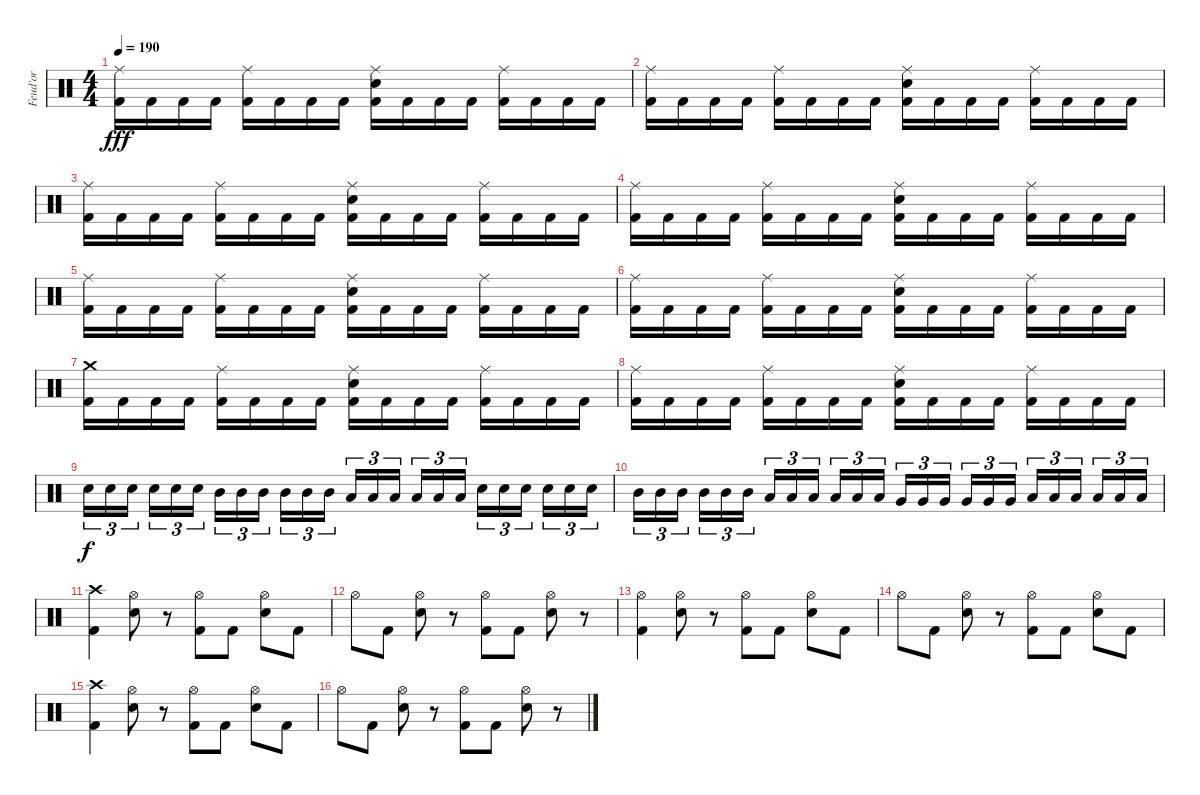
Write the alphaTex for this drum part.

\track ("Feud'or" "Feud'or") {instrument percussion}
\staff {score}
\articulation defaults
\ts (4 4)
\tempo 190
\clef neutral
\ks c
("Ride (middle)" "Kick (hit) 2").16{dy fff} "Kick (hit) 2".16 "Kick (hit) 2".16 "Kick (hit) 2".16 ("Ride (middle)" "Kick (hit) 2").16 "Kick (hit) 2".16 "Kick (hit) 2".16 "Kick (hit) 2".16 ("Ride (middle)" "Snare (hit) 2" "Kick (hit) 2").16 "Kick (hit) 2".16 "Kick (hit) 2".16 "Kick (hit) 2".16 ("Ride (middle)" "Kick (hit) 2").16 "Kick (hit) 2".16 "Kick (hit) 2".16 "Kick (hit) 2".16 |
("Ride (middle)" "Kick (hit) 2").16 "Kick (hit) 2".16 "Kick (hit) 2".16 "Kick (hit) 2".16 ("Ride (middle)" "Kick (hit) 2").16 "Kick (hit) 2".16 "Kick (hit) 2".16 "Kick (hit) 2".16 ("Ride (middle)" "Snare (hit) 2" "Kick (hit) 2").16 "Kick (hit) 2".16 "Kick (hit) 2".16 "Kick (hit) 2".16 ("Ride (middle)" "Kick (hit) 2").16 "Kick (hit) 2".16 "Kick (hit) 2".16 "Kick (hit) 2".16 |
("Ride (middle)" "Kick (hit) 2").16 "Kick (hit) 2".16 "Kick (hit) 2".16 "Kick (hit) 2".16 ("Ride (middle)" "Kick (hit) 2").16 "Kick (hit) 2".16 "Kick (hit) 2".16 "Kick (hit) 2".16 ("Ride (middle)" "Snare (hit) 2" "Kick (hit) 2").16 "Kick (hit) 2".16 "Kick (hit) 2".16 "Kick (hit) 2".16 ("Ride (middle)" "Kick (hit) 2").16 "Kick (hit) 2".16 "Kick (hit) 2".16 "Kick (hit) 2".16 |
("Ride (middle)" "Kick (hit) 2").16 "Kick (hit) 2".16 "Kick (hit) 2".16 "Kick (hit) 2".16 ("Ride (middle)" "Kick (hit) 2").16 "Kick (hit) 2".16 "Kick (hit) 2".16 "Kick (hit) 2".16 ("Ride (middle)" "Snare (hit) 2" "Kick (hit) 2").16 "Kick (hit) 2".16 "Kick (hit) 2".16 "Kick (hit) 2".16 ("Ride (middle)" "Kick (hit) 2").16 "Kick (hit) 2".16 "Kick (hit) 2".16 "Kick (hit) 2".16 |
("Ride (middle)" "Kick (hit) 2").16 "Kick (hit) 2".16 "Kick (hit) 2".16 "Kick (hit) 2".16 ("Ride (middle)" "Kick (hit) 2").16 "Kick (hit) 2".16 "Kick (hit) 2".16 "Kick (hit) 2".16 ("Ride (middle)" "Snare (hit) 2" "Kick (hit) 2").16 "Kick (hit) 2".16 "Kick (hit) 2".16 "Kick (hit) 2".16 ("Ride (middle)" "Kick (hit) 2").16 "Kick (hit) 2".16 "Kick (hit) 2".16 "Kick (hit) 2".16 |
("Ride (middle)" "Kick (hit) 2").16 "Kick (hit) 2".16 "Kick (hit) 2".16 "Kick (hit) 2".16 ("Ride (middle)" "Kick (hit) 2").16 "Kick (hit) 2".16 "Kick (hit) 2".16 "Kick (hit) 2".16 ("Ride (middle)" "Snare (hit) 2" "Kick (hit) 2").16 "Kick (hit) 2".16 "Kick (hit) 2".16 "Kick (hit) 2".16 ("Ride (middle)" "Kick (hit) 2").16 "Kick (hit) 2".16 "Kick (hit) 2".16 "Kick (hit) 2".16 |
("Crash medium (hit)" "Kick (hit) 2").16 "Kick (hit) 2".16 "Kick (hit) 2".16 "Kick (hit) 2".16 ("Ride (middle)" "Kick (hit) 2").16 "Kick (hit) 2".16 "Kick (hit) 2".16 "Kick (hit) 2".16 ("Ride (middle)" "Snare (hit) 2" "Kick (hit) 2").16 "Kick (hit) 2".16 "Kick (hit) 2".16 "Kick (hit) 2".16 ("Ride (middle)" "Kick (hit) 2").16 "Kick (hit) 2".16 "Kick (hit) 2".16 "Kick (hit) 2".16 |
("Ride (middle)" "Kick (hit) 2").16 "Kick (hit) 2".16 "Kick (hit) 2".16 "Kick (hit) 2".16 ("Ride (middle)" "Kick (hit) 2").16 "Kick (hit) 2".16 "Kick (hit) 2".16 "Kick (hit) 2".16 ("Ride (middle)" "Snare (hit) 2" "Kick (hit) 2").16 "Kick (hit) 2".16 "Kick (hit) 2".16 "Kick (hit) 2".16 ("Ride (middle)" "Kick (hit) 2").16 "Kick (hit) 2".16 "Kick (hit) 2".16 "Kick (hit) 2".16 |
"Snare (hit) 2".16{tu (3 2) dy f} "Snare (hit) 2".16{tu (3 2)} "Snare (hit) 2".16{tu (3 2) beam splitsecondary} "Snare (hit) 2".16{tu (3 2)} "Snare (hit) 2".16{tu (3 2)} "Snare (hit) 2".16{tu (3 2)} "Mid Tom (hit)".16{tu (3 2)} "Mid Tom (hit)".16{tu (3 2)} "Mid Tom (hit)".16{tu (3 2) beam splitsecondary} "Mid Tom (hit)".16{tu (3 2)} "Mid Tom (hit)".16{tu (3 2)} "Mid Tom (hit)".16{tu (3 2)} "Low Tom (hit)".16{tu (3 2)} "Low Tom (hit)".16{tu (3 2)} "Low Tom (hit)".16{tu (3 2) beam splitsecondary} "Low Tom (hit)".16{tu (3 2)} "Low Tom (hit)".16{tu (3 2)} "Low Tom (hit)".16{tu (3 2)} "Snare (hit) 2".16{tu (3 2)} "Snare (hit) 2".16{tu (3 2)} "Snare (hit) 2".16{tu (3 2) beam splitsecondary} "Snare (hit) 2".16{tu (3 2)} "Snare (hit) 2".16{tu (3 2)} "Snare (hit) 2".16{tu (3 2)} |
"Mid Tom (hit)".16{tu (3 2)} "Mid Tom (hit)".16{tu (3 2)} "Mid Tom (hit)".16{tu (3 2) beam splitsecondary} "Mid Tom (hit)".16{tu (3 2)} "Mid Tom (hit)".16{tu (3 2)} "Mid Tom (hit)".16{tu (3 2)} "Low Tom (hit)".16{tu (3 2)} "Low Tom (hit)".16{tu (3 2)} "Low Tom (hit)".16{tu (3 2) beam splitsecondary} "Low Tom (hit)".16{tu (3 2)} "Low Tom (hit)".16{tu (3 2)} "Low Tom (hit)".16{tu (3 2)} "Very Low Tom (hit)".16{tu (3 2)} "Very Low Tom (hit)".16{tu (3 2)} "Very Low Tom (hit)".16{tu (3 2) beam splitsecondary} "Very Low Tom (hit)".16{tu (3 2)} "Very Low Tom (hit)".16{tu (3 2)} "Very Low Tom (hit)".16{tu (3 2)} "Low Floor Tom (hit)".16{tu (3 2)} "Low Floor Tom (hit)".16{tu (3 2)} "Low Floor Tom (hit)".16{tu (3 2) beam splitsecondary} "Low Floor Tom (hit)".16{tu (3 2)} "Low Floor Tom (hit)".16{tu (3 2)} "Low Floor Tom (hit)".16{tu (3 2)} |
("Crash high (hit)" "Kick (hit) 2").4 ("Hi-Hat (open)" "Snare (hit) 2").8 r.8 ("Hi-Hat (open)" "Kick (hit) 2").8 "Kick (hit) 2".8 ("Hi-Hat (open)" "Snare (hit) 2").8 "Kick (hit) 2".8 |
"Hi-Hat (open)".8 "Kick (hit) 2".8 ("Hi-Hat (open)" "Snare (hit) 2").8 r.8 ("Hi-Hat (open)" "Kick (hit) 2").8 "Kick (hit) 2".8 ("Hi-Hat (open)" "Snare (hit) 2").8 r.8 |
("Hi-Hat (open)" "Kick (hit) 2").4 ("Hi-Hat (open)" "Snare (hit) 2").8 r.8 ("Hi-Hat (open)" "Kick (hit) 2").8 "Kick (hit) 2".8 ("Hi-Hat (open)" "Snare (hit) 2").8 "Kick (hit) 2".8 |
"Hi-Hat (open)".8 "Kick (hit) 2".8 ("Hi-Hat (open)" "Snare (hit) 2").8 r.8 ("Hi-Hat (open)" "Kick (hit) 2").8 "Kick (hit) 2".8 ("Hi-Hat (open)" "Snare (hit) 2").8 "Kick (hit) 2".8 |
("Crash high (hit)" "Kick (hit) 2").4 ("Hi-Hat (open)" "Snare (hit) 2").8 r.8 ("Hi-Hat (open)" "Kick (hit) 2").8 "Kick (hit) 2".8 ("Hi-Hat (open)" "Snare (hit) 2").8 "Kick (hit) 2".8 |
"Hi-Hat (open)".8 "Kick (hit) 2".8 ("Hi-Hat (open)" "Snare (hit) 2").8 r.8 ("Hi-Hat (open)" "Kick (hit) 2").8 "Kick (hit) 2".8 ("Hi-Hat (open)" "Snare (hit) 2").8 r.8
